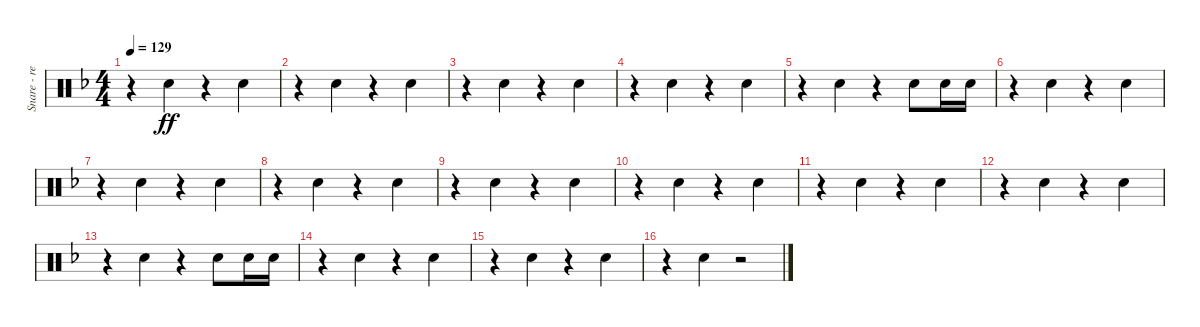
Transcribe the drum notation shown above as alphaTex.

\track ("Snare - reverb" "Snare - re") {instrument percussion}
\staff {score}
\articulation defaults
\ts (4 4)
\tempo 129
\clef neutral
\ks dminor
r.4{dy ff} "Snare (hit) 2".4 r.4 "Snare (hit) 2".4 |
r.4 "Snare (hit) 2".4 r.4 "Snare (hit) 2".4 |
r.4 "Snare (hit) 2".4 r.4 "Snare (hit) 2".4 |
r.4 "Snare (hit) 2".4 r.4 "Snare (hit) 2".4 |
r.4 "Snare (hit) 2".4 r.4 "Snare (hit) 2".8 "Snare (hit) 2".16 "Snare (hit) 2".16 |
r.4 "Snare (hit) 2".4 r.4 "Snare (hit) 2".4 |
r.4 "Snare (hit) 2".4 r.4 "Snare (hit) 2".4 |
r.4 "Snare (hit) 2".4 r.4 "Snare (hit) 2".4 |
r.4 "Snare (hit) 2".4 r.4 "Snare (hit) 2".4 |
r.4 "Snare (hit) 2".4 r.4 "Snare (hit) 2".4 |
r.4 "Snare (hit) 2".4 r.4 "Snare (hit) 2".4 |
r.4 "Snare (hit) 2".4 r.4 "Snare (hit) 2".4 |
r.4 "Snare (hit) 2".4 r.4 "Snare (hit) 2".8 "Snare (hit) 2".16 "Snare (hit) 2".16 |
r.4 "Snare (hit) 2".4 r.4 "Snare (hit) 2".4 |
r.4 "Snare (hit) 2".4 r.4 "Snare (hit) 2".4 |
r.4 "Snare (hit) 2".4 r.2
